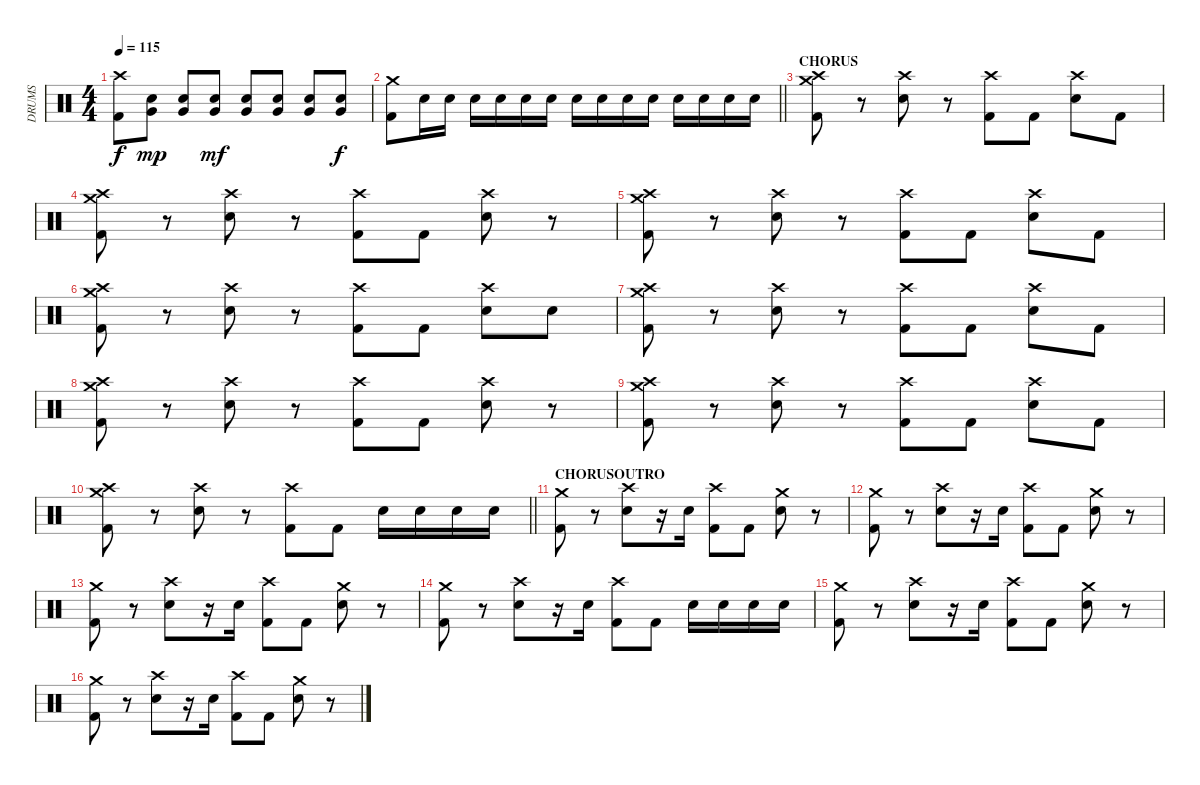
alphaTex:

\track ("DRUMS" "DRUMS") {instrument percussion}
\staff {score}
\articulation defaults
\ts (4 4)
\tempo 115
\clef neutral
\ks c
("Crash high (hit)" "Kick (hit) 2").8{dy f} ("Electric Snare (hit)" "Very Low Tom (hit)").8{dy mp} ("Electric Snare (hit)" "Very Low Tom (hit)").8 ("Electric Snare (hit)" "Very Low Tom (hit)").8{dy mf} ("Electric Snare (hit)" "Very Low Tom (hit)").8 ("Electric Snare (hit)" "Very Low Tom (hit)").8 ("Electric Snare (hit)" "Very Low Tom (hit)").8 ("Electric Snare (hit)" "Very Low Tom (hit)").8{dy f} |
\barLineRight lightlight
("Crash medium (hit)" "Kick (hit) 2").8 "Electric Snare (hit)".16 "Electric Snare (hit)".16 "Electric Snare (hit)".16 "Electric Snare (hit)".16 "Electric Snare (hit)".16 "Electric Snare (hit)".16 "Electric Snare (hit)".16 "Electric Snare (hit)".16 "Electric Snare (hit)".16 "Electric Snare (hit)".16 "Electric Snare (hit)".16 "Electric Snare (hit)".16 "Electric Snare (hit)".16 "Electric Snare (hit)".16 |
\section ("" "CHORUS")
("Crash medium (hit)" "Crash high (hit)" "Kick (hit) 2").8 r.8 ("Crash high (hit)" "Electric Snare (hit)").8 r.8 ("Crash high (hit)" "Kick (hit) 2").8 "Kick (hit) 2".8 ("Crash high (hit)" "Electric Snare (hit)").8 "Kick (hit) 2".8 |
("Crash medium (hit)" "Crash high (hit)" "Kick (hit) 2").8 r.8 ("Crash high (hit)" "Electric Snare (hit)").8 r.8 ("Crash high (hit)" "Kick (hit) 2").8 "Kick (hit) 2".8 ("Crash high (hit)" "Electric Snare (hit)").8 r.8 |
("Crash medium (hit)" "Crash high (hit)" "Kick (hit) 2").8 r.8 ("Crash high (hit)" "Electric Snare (hit)").8 r.8 ("Crash high (hit)" "Kick (hit) 2").8 "Kick (hit) 2".8 ("Crash high (hit)" "Electric Snare (hit)").8 "Kick (hit) 2".8 |
("Crash medium (hit)" "Crash high (hit)" "Kick (hit) 2").8 r.8 ("Crash high (hit)" "Electric Snare (hit)").8 r.8 ("Crash high (hit)" "Kick (hit) 2").8 "Kick (hit) 2".8 ("Crash high (hit)" "Electric Snare (hit)").8 "Electric Snare (hit)".8 |
("Crash medium (hit)" "Crash high (hit)" "Kick (hit) 2").8 r.8 ("Crash high (hit)" "Electric Snare (hit)").8 r.8 ("Crash high (hit)" "Kick (hit) 2").8 "Kick (hit) 2".8 ("Crash high (hit)" "Electric Snare (hit)").8 "Kick (hit) 2".8 |
("Crash medium (hit)" "Crash high (hit)" "Kick (hit) 2").8 r.8 ("Crash high (hit)" "Electric Snare (hit)").8 r.8 ("Crash high (hit)" "Kick (hit) 2").8 "Kick (hit) 2".8 ("Crash high (hit)" "Electric Snare (hit)").8 r.8 |
("Crash medium (hit)" "Crash high (hit)" "Kick (hit) 2").8 r.8 ("Crash high (hit)" "Electric Snare (hit)").8 r.8 ("Crash high (hit)" "Kick (hit) 2").8 "Kick (hit) 2".8 ("Crash high (hit)" "Electric Snare (hit)").8 "Kick (hit) 2".8 |
\barLineRight lightlight
("Crash medium (hit)" "Crash high (hit)" "Kick (hit) 2").8 r.8 ("Crash high (hit)" "Electric Snare (hit)").8 r.8 ("Crash high (hit)" "Kick (hit) 2").8 "Kick (hit) 2".8 "Electric Snare (hit)".16 "Electric Snare (hit)".16 "Electric Snare (hit)".16 "Electric Snare (hit)".16 |
\section ("" "CHORUSOUTRO")
("Crash medium (hit)" "Kick (hit) 2").8 r.8 ("Crash high (hit)" "Electric Snare (hit)").8 r.16 "Electric Snare (hit)".16 ("Crash high (hit)" "Kick (hit) 2").8 "Kick (hit) 2".8 ("Crash medium (hit)" "Electric Snare (hit)").8 r.8 |
("Crash medium (hit)" "Kick (hit) 2").8 r.8 ("Crash high (hit)" "Electric Snare (hit)").8 r.16 "Electric Snare (hit)".16 ("Crash high (hit)" "Kick (hit) 2").8 "Kick (hit) 2".8 ("Crash medium (hit)" "Electric Snare (hit)").8 r.8 |
("Crash medium (hit)" "Kick (hit) 2").8 r.8 ("Crash high (hit)" "Electric Snare (hit)").8 r.16 "Electric Snare (hit)".16 ("Crash high (hit)" "Kick (hit) 2").8 "Kick (hit) 2".8 ("Crash medium (hit)" "Electric Snare (hit)").8 r.8 |
("Crash medium (hit)" "Kick (hit) 2").8 r.8 ("Crash high (hit)" "Electric Snare (hit)").8 r.16 "Electric Snare (hit)".16 ("Crash high (hit)" "Kick (hit) 2").8 "Kick (hit) 2".8 "Electric Snare (hit)".16 "Electric Snare (hit)".16 "Electric Snare (hit)".16 "Electric Snare (hit)".16 |
("Crash medium (hit)" "Kick (hit) 2").8 r.8 ("Crash high (hit)" "Electric Snare (hit)").8 r.16 "Electric Snare (hit)".16 ("Crash high (hit)" "Kick (hit) 2").8 "Kick (hit) 2".8 ("Crash medium (hit)" "Electric Snare (hit)").8 r.8 |
("Crash medium (hit)" "Kick (hit) 2").8 r.8 ("Crash high (hit)" "Electric Snare (hit)").8 r.16 "Electric Snare (hit)".16 ("Crash high (hit)" "Kick (hit) 2").8 "Kick (hit) 2".8 ("Crash medium (hit)" "Electric Snare (hit)").8 r.8
